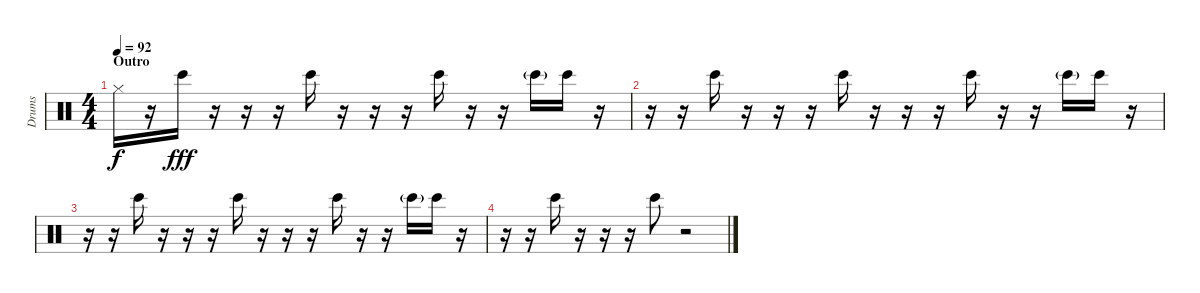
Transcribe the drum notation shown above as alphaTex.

\track ("Drums" "Drums") {instrument percussion}
\staff {score}
\articulation defaults
\ts (4 4)
\section ("" "Outro")
\tempo 92
\clef neutral
\ks c "Hi-Hat (closed)".16{dy f}
r.16 "Bongo High (hit)".16{dy fff} r.16 r.16 r.16 "Bongo High (hit)".16 r.16 r.16 r.16 "Bongo High (hit)".16 r.16 r.16 "Bongo High (hit)"{g}.16 "Bongo High (hit)".16 r.16 |
r.16 r.16 "Bongo High (hit)".16 r.16 r.16 r.16 "Bongo High (hit)".16 r.16 r.16 r.16 "Bongo High (hit)".16 r.16 r.16 "Bongo High (hit)"{g}.16 "Bongo High (hit)".16 r.16 |
r.16 r.16 "Bongo High (hit)".16 r.16 r.16 r.16 "Bongo High (hit)".16 r.16 r.16 r.16 "Bongo High (hit)".16 r.16 r.16 "Bongo High (hit)"{g}.16 "Bongo High (hit)".16 r.16 |
r.16 r.16 "Bongo High (hit)".16 r.16 r.16 r.16 "Bongo High (hit)".8 r.2
